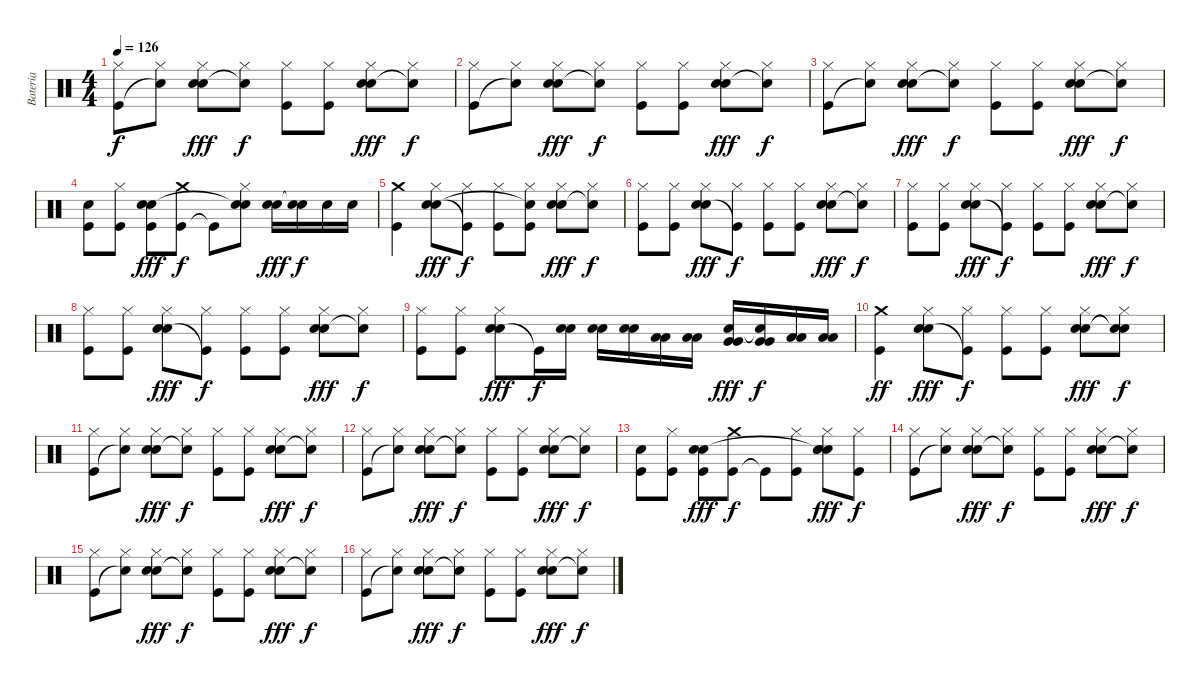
\track ("Bateria" "Bateria") {instrument percussion}
\staff {score}
\articulation defaults
\ts (4 4)
\tempo 126
\clef neutral
\ks c
("Kick (hit)" "Hi-Hat (closed)").8{dy f} ("Snare (hit)"{t} "Hi-Hat (closed)").8 ("Snare (hit) 2" "Hi-Hat (closed)" "Hand Clap (hit)").8{dy fff} ("Snare (hit)"{t} "Hi-Hat (closed)").8{dy f} ("Kick (hit)" "Hi-Hat (closed)").8 ("Kick (hit)" "Hi-Hat (closed)").8 ("Snare (hit) 2" "Hi-Hat (closed)" "Hand Clap (hit)").8{dy fff} ("Snare (hit)"{t} "Hi-Hat (closed)").8{dy f} |
("Kick (hit)" "Hi-Hat (closed)").8 ("Snare (hit)"{t} "Hi-Hat (closed)").8 ("Snare (hit) 2" "Hi-Hat (closed)" "Hand Clap (hit)").8{dy fff} ("Snare (hit)"{t} "Hi-Hat (closed)").8{dy f} ("Kick (hit)" "Hi-Hat (closed)").8 ("Kick (hit)" "Hi-Hat (closed)").8 ("Snare (hit) 2" "Hi-Hat (closed)" "Hand Clap (hit)").8{dy fff} ("Snare (hit)"{t} "Hi-Hat (closed)").8{dy f} |
("Kick (hit)" "Hi-Hat (closed)").8 ("Snare (hit)"{t} "Hi-Hat (closed)").8 ("Snare (hit) 2" "Hi-Hat (closed)" "Hand Clap (hit)").8{dy fff} ("Snare (hit)"{t} "Hi-Hat (closed)").8{dy f} ("Kick (hit)" "Hi-Hat (closed)").8 ("Kick (hit)" "Hi-Hat (closed)").8 ("Snare (hit) 2" "Hi-Hat (closed)" "Hand Clap (hit)").8{dy fff} ("Snare (hit)"{t} "Hi-Hat (closed)").8{dy f} |
("Kick (hit)" "Snare (hit) 2").8 ("Kick (hit)" "Hi-Hat (closed)").8 ("Kick (hit)" "Snare (hit) 2" "Hand Clap (hit)").8{dy fff} ("Kick (hit)" "Crash medium (hit)").8{dy f} "Kick (hit)"{t}.8 ("Snare (hit) 2" "Hi-Hat (closed)" "Snare (hit)"{t}).8 ("Snare (hit) 2" "Hand Clap (hit)").16{dy fff} ("Snare (hit) 2" "Snare (hit)"{t}).16{dy f} "Snare (hit) 2".16 "Snare (hit) 2".16 |
("Kick (hit)" "Crash medium (hit)").4 ("Snare (hit) 2" "Hi-Hat (closed)" "Hand Clap (hit)").8{dy fff} ("Kick (hit)"{t} "Hi-Hat (closed)").8{dy f} ("Kick (hit)" "Hi-Hat (closed)").8 ("Kick (hit)" "Hi-Hat (closed)" "Snare (hit)"{t}).8 ("Snare (hit) 2" "Hi-Hat (closed)" "Hand Clap (hit)").8{dy fff} ("Snare (hit)"{t} "Hi-Hat (closed)").8{dy f} |
("Kick (hit)" "Hi-Hat (closed)").8 ("Kick (hit)" "Hi-Hat (closed)").8 ("Snare (hit) 2" "Hi-Hat (closed)" "Hand Clap (hit)").8{dy fff} ("Kick (hit)"{t} "Hi-Hat (closed)").8{dy f} ("Kick (hit)" "Hi-Hat (closed)").8 ("Kick (hit)" "Hi-Hat (closed)").8 ("Snare (hit) 2" "Hi-Hat (closed)" "Hand Clap (hit)").8{dy fff} ("Snare (hit)"{t} "Hi-Hat (closed)").8{dy f} |
("Kick (hit)" "Hi-Hat (closed)").8 ("Kick (hit)" "Hi-Hat (closed)").8 ("Snare (hit) 2" "Hi-Hat (closed)" "Hand Clap (hit)").8{dy fff} ("Kick (hit)"{t} "Hi-Hat (closed)").8{dy f} ("Kick (hit)" "Hi-Hat (closed)").8 ("Kick (hit)" "Hi-Hat (closed)").8 ("Snare (hit) 2" "Hi-Hat (closed)" "Hand Clap (hit)").8{dy fff} ("Snare (hit)"{t} "Hi-Hat (closed)").8{dy f} |
("Kick (hit)" "Hi-Hat (closed)").8 ("Kick (hit)" "Hi-Hat (closed)").8 ("Snare (hit) 2" "Hi-Hat (closed)" "Hand Clap (hit)").8{dy fff} ("Kick (hit)"{t} "Hi-Hat (closed)").8{dy f} ("Kick (hit)" "Hi-Hat (closed)").8 ("Kick (hit)" "Hi-Hat (closed)").8 ("Snare (hit) 2" "Hi-Hat (closed)" "Hand Clap (hit)").8{dy fff} ("Snare (hit)"{t} "Hi-Hat (closed)").8{dy f} |
("Kick (hit)" "Hi-Hat (closed)").8 ("Kick (hit)" "Hi-Hat (closed)").8 ("Snare (hit) 2" "Hi-Hat (closed)" "Hand Clap (hit)").8{dy fff} "Kick (hit)"{t}.16{dy f} ("Snare (hit) 2" "Snare (hit) 2").16 ("Snare (hit) 2" "Snare (hit) 2").16 ("Snare (hit) 2" "Snare (hit) 2").16 ("Low Tom (hit)" "Low Tom (hit)").16 ("Low Tom (hit)" "Low Tom (hit)").16 ("Very Low Tom (hit)" "Very Low Tom (hit)" "Hand Clap (hit)").16{dy fff} ("Very Low Tom (hit)" "Very Low Tom (hit)" "Snare (hit)"{t}).16{dy f} ("Low Floor Tom (hit)" "Low Floor Tom (hit)").16 ("Low Floor Tom (hit)" "Low Floor Tom (hit)").16 |
("Kick (hit)" "Crash medium (hit)").4{dy ff} ("Snare (hit) 2" "Hi-Hat (closed)" "Hand Clap (hit)").8{dy fff} ("Kick (hit)"{t} "Hi-Hat (closed)").8{dy f} ("Kick (hit)" "Hi-Hat (closed)").8 ("Kick (hit)" "Hi-Hat (closed)").8 ("Snare (hit) 2" "Hi-Hat (closed)" "Hand Clap (hit)").8{dy fff} ("Snare (hit)"{t} "Hi-Hat (closed)" "Snare (hit)"{t}).8{dy f} |
("Kick (hit)" "Hi-Hat (closed)").8 ("Snare (hit)"{t} "Hi-Hat (closed)").8 ("Snare (hit) 2" "Hi-Hat (closed)" "Hand Clap (hit)").8{dy fff} ("Snare (hit)"{t} "Hi-Hat (closed)").8{dy f} ("Kick (hit)" "Hi-Hat (closed)").8 ("Kick (hit)" "Hi-Hat (closed)").8 ("Snare (hit) 2" "Hi-Hat (closed)" "Hand Clap (hit)").8{dy fff} ("Snare (hit)"{t} "Hi-Hat (closed)").8{dy f} |
("Kick (hit)" "Hi-Hat (closed)").8 ("Snare (hit)"{t} "Hi-Hat (closed)").8 ("Snare (hit) 2" "Hi-Hat (closed)" "Hand Clap (hit)").8{dy fff} ("Snare (hit)"{t} "Hi-Hat (closed)").8{dy f} ("Kick (hit)" "Hi-Hat (closed)").8 ("Kick (hit)" "Hi-Hat (closed)").8 ("Snare (hit) 2" "Hi-Hat (closed)" "Hand Clap (hit)").8{dy fff} ("Snare (hit)"{t} "Hi-Hat (closed)").8{dy f} |
("Kick (hit)" "Snare (hit) 2").8 ("Kick (hit)" "Hi-Hat (closed)").8 ("Kick (hit)" "Snare (hit) 2" "Hand Clap (hit)").8{dy fff} ("Kick (hit)" "Crash medium (hit)").8{dy f} "Kick (hit)"{t}.8 ("Kick (hit)" "Hi-Hat (closed)").8 ("Snare (hit) 2" "Hi-Hat (closed)" "Snare (hit)"{t} "Hand Clap (hit)").8{dy fff} ("Kick (hit)" "Hi-Hat (closed)").8{dy f} |
("Kick (hit)" "Hi-Hat (closed)").8{volume 12} ("Snare (hit)"{t} "Hi-Hat (closed)").8 ("Snare (hit) 2" "Hi-Hat (closed)" "Hand Clap (hit)").8{dy fff} ("Snare (hit)"{t} "Hi-Hat (closed)").8{dy f} ("Kick (hit)" "Hi-Hat (closed)").8 ("Kick (hit)" "Hi-Hat (closed)").8 ("Snare (hit) 2" "Hi-Hat (closed)" "Hand Clap (hit)").8{dy fff} ("Snare (hit)"{t} "Hi-Hat (closed)").8{dy f} |
("Kick (hit)" "Hi-Hat (closed)").8 ("Snare (hit)"{t} "Hi-Hat (closed)").8 ("Snare (hit) 2" "Hi-Hat (closed)" "Hand Clap (hit)").8{dy fff} ("Snare (hit)"{t} "Hi-Hat (closed)").8{dy f} ("Kick (hit)" "Hi-Hat (closed)").8 ("Kick (hit)" "Hi-Hat (closed)").8 ("Snare (hit) 2" "Hi-Hat (closed)" "Hand Clap (hit)").8{dy fff} ("Snare (hit)"{t} "Hi-Hat (closed)").8{dy f} |
("Kick (hit)" "Hi-Hat (closed)").8 ("Snare (hit)"{t} "Hi-Hat (closed)").8 ("Snare (hit) 2" "Hi-Hat (closed)" "Hand Clap (hit)").8{dy fff} ("Snare (hit)"{t} "Hi-Hat (closed)").8{dy f} ("Kick (hit)" "Hi-Hat (closed)").8 ("Kick (hit)" "Hi-Hat (closed)").8 ("Snare (hit) 2" "Hi-Hat (closed)" "Hand Clap (hit)").8{dy fff} ("Snare (hit)"{t} "Hi-Hat (closed)").8{dy f}
